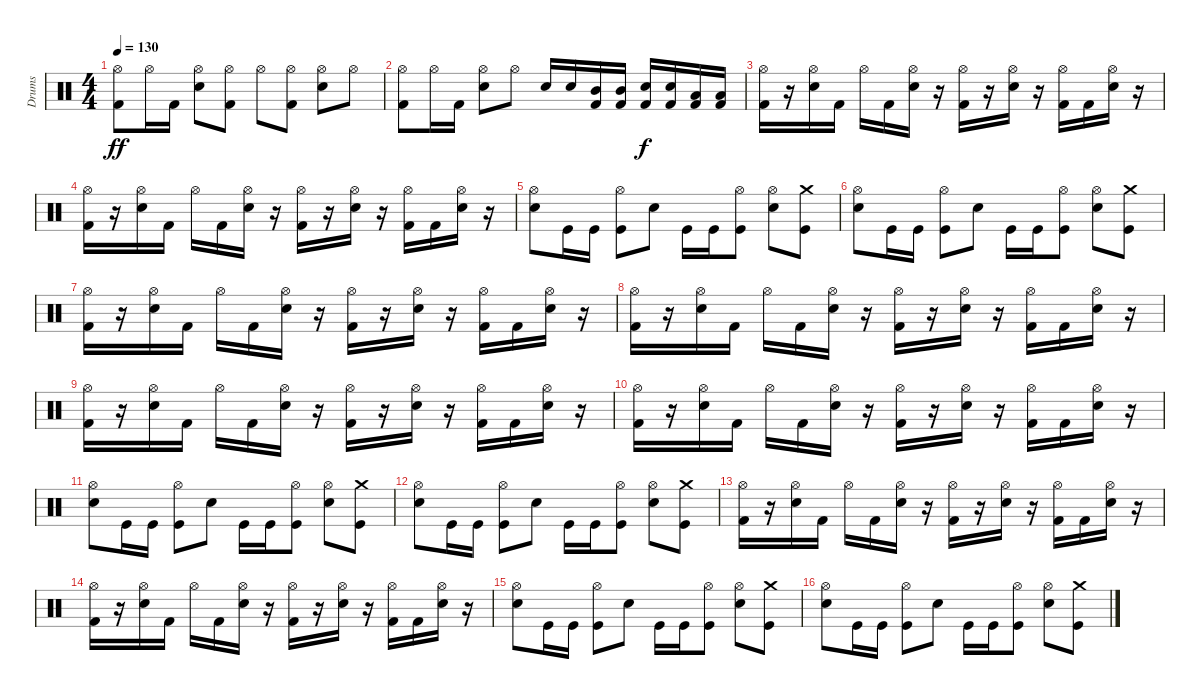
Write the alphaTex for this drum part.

\track ("Drums" "Drums") {instrument percussion}
\staff {score}
\articulation defaults
\ts (4 4)
\tempo 130
\clef neutral
\ks c
("Kick (hit) 2" "Hi-Hat (open)").8{dy ff} "Hi-Hat (open)".16 "Kick (hit) 2".16 ("Hi-Hat (open)" "Electric Snare (hit)").8 ("Kick (hit) 2" "Hi-Hat (open)").8 "Hi-Hat (open)".8 ("Kick (hit) 2" "Hi-Hat (open)").8 ("Hi-Hat (open)" "Electric Snare (hit)").8 "Hi-Hat (open)".8 |
("Kick (hit) 2" "Hi-Hat (open)").8 "Hi-Hat (open)".16 "Kick (hit) 2".16 ("Hi-Hat (open)" "Electric Snare (hit)").8 "Hi-Hat (open)".8 "Electric Snare (hit)".16 "Electric Snare (hit)".16 ("Kick (hit) 2" "Mid Tom (hit)").16 ("Kick (hit) 2" "Mid Tom (hit)").16 ("Kick (hit) 2" "Electric Snare (hit)").16{dy f} ("Kick (hit) 2" "Electric Snare (hit)").16 ("Kick (hit) 2" "Low Tom (hit)").16 ("Kick (hit) 2" "Low Tom (hit)").16 |
("Kick (hit) 2" "Hi-Hat (open)").16 r.16 ("Electric Snare (hit)" "Hi-Hat (open)").16 "Kick (hit) 2".16 "Hi-Hat (open)".16 "Kick (hit) 2".16 ("Electric Snare (hit)" "Hi-Hat (open)").16 r.16 ("Kick (hit) 2" "Hi-Hat (open)").16 r.16 ("Electric Snare (hit)" "Hi-Hat (open)").16 r.16 ("Kick (hit) 2" "Hi-Hat (open)").16 "Kick (hit) 2".16 ("Electric Snare (hit)" "Hi-Hat (open)").16 r.16 |
("Kick (hit) 2" "Hi-Hat (open)").16 r.16 ("Electric Snare (hit)" "Hi-Hat (open)").16 "Kick (hit) 2".16 "Hi-Hat (open)".16 "Kick (hit) 2".16 ("Electric Snare (hit)" "Hi-Hat (open)").16 r.16 ("Kick (hit) 2" "Hi-Hat (open)").16 r.16 ("Electric Snare (hit)" "Hi-Hat (open)").16 r.16 ("Hi-Hat (open)" "Kick (hit) 2").16 "Kick (hit) 2".16 ("Electric Snare (hit)" "Hi-Hat (open)").16 r.16 |
("Hi-Hat (open)" "Electric Snare (hit)").8 "Kick (hit)".16 "Kick (hit)".16 ("Hi-Hat (open)" "Kick (hit)").8 "Electric Snare (hit)".8 "Kick (hit)".16 "Kick (hit)".16 ("Hi-Hat (open)" "Kick (hit)").8 ("Hi-Hat (open)" "Electric Snare (hit)").8 ("Crash medium (hit)" "Kick (hit)").8 |
("Hi-Hat (open)" "Electric Snare (hit)").8 "Kick (hit)".16 "Kick (hit)".16 ("Hi-Hat (open)" "Kick (hit)").8 "Electric Snare (hit)".8 "Kick (hit)".16 "Kick (hit)".16 ("Hi-Hat (open)" "Kick (hit)").8 ("Hi-Hat (open)" "Electric Snare (hit)").8 ("Crash medium (hit)" "Kick (hit)").8 |
("Kick (hit) 2" "Hi-Hat (open)").16 r.16 ("Electric Snare (hit)" "Hi-Hat (open)").16 "Kick (hit) 2".16 "Hi-Hat (open)".16 "Kick (hit) 2".16 ("Electric Snare (hit)" "Hi-Hat (open)").16 r.16 ("Kick (hit) 2" "Hi-Hat (open)").16 r.16 ("Electric Snare (hit)" "Hi-Hat (open)").16 r.16 ("Kick (hit) 2" "Hi-Hat (open)").16 "Kick (hit) 2".16 ("Electric Snare (hit)" "Hi-Hat (open)").16 r.16 |
("Kick (hit) 2" "Hi-Hat (open)").16 r.16 ("Electric Snare (hit)" "Hi-Hat (open)").16 "Kick (hit) 2".16 "Hi-Hat (open)".16 "Kick (hit) 2".16 ("Electric Snare (hit)" "Hi-Hat (open)").16 r.16 ("Kick (hit) 2" "Hi-Hat (open)").16 r.16 ("Electric Snare (hit)" "Hi-Hat (open)").16 r.16 ("Kick (hit) 2" "Hi-Hat (open)").16 "Kick (hit) 2".16 ("Electric Snare (hit)" "Hi-Hat (open)").16 r.16 |
("Kick (hit) 2" "Hi-Hat (open)").16 r.16 ("Electric Snare (hit)" "Hi-Hat (open)").16 "Kick (hit) 2".16 "Hi-Hat (open)".16 "Kick (hit) 2".16 ("Electric Snare (hit)" "Hi-Hat (open)").16 r.16 ("Kick (hit) 2" "Hi-Hat (open)").16 r.16 ("Electric Snare (hit)" "Hi-Hat (open)").16 r.16 ("Kick (hit) 2" "Hi-Hat (open)").16 "Kick (hit) 2".16 ("Electric Snare (hit)" "Hi-Hat (open)").16 r.16 |
("Kick (hit) 2" "Hi-Hat (open)").16 r.16 ("Electric Snare (hit)" "Hi-Hat (open)").16 "Kick (hit) 2".16 "Hi-Hat (open)".16 "Kick (hit) 2".16 ("Electric Snare (hit)" "Hi-Hat (open)").16 r.16 ("Kick (hit) 2" "Hi-Hat (open)").16 r.16 ("Electric Snare (hit)" "Hi-Hat (open)").16 r.16 ("Kick (hit) 2" "Hi-Hat (open)").16 "Kick (hit) 2".16 ("Electric Snare (hit)" "Hi-Hat (open)").16 r.16 |
("Hi-Hat (open)" "Electric Snare (hit)").8 "Kick (hit)".16 "Kick (hit)".16 ("Hi-Hat (open)" "Kick (hit)").8 "Electric Snare (hit)".8 "Kick (hit)".16 "Kick (hit)".16 ("Hi-Hat (open)" "Kick (hit)").8 ("Hi-Hat (open)" "Electric Snare (hit)").8 ("Crash medium (hit)" "Kick (hit)").8 |
("Hi-Hat (open)" "Electric Snare (hit)").8 "Kick (hit)".16 "Kick (hit)".16 ("Hi-Hat (open)" "Kick (hit)").8 "Electric Snare (hit)".8 "Kick (hit)".16 "Kick (hit)".16 ("Hi-Hat (open)" "Kick (hit)").8 ("Hi-Hat (open)" "Electric Snare (hit)").8 ("Crash medium (hit)" "Kick (hit)").8 |
("Kick (hit) 2" "Hi-Hat (open)").16 r.16 ("Electric Snare (hit)" "Hi-Hat (open)").16 "Kick (hit) 2".16 "Hi-Hat (open)".16 "Kick (hit) 2".16 ("Electric Snare (hit)" "Hi-Hat (open)").16 r.16 ("Kick (hit) 2" "Hi-Hat (open)").16 r.16 ("Electric Snare (hit)" "Hi-Hat (open)").16 r.16 ("Kick (hit) 2" "Hi-Hat (open)").16 "Kick (hit) 2".16 ("Electric Snare (hit)" "Hi-Hat (open)").16 r.16 |
("Kick (hit) 2" "Hi-Hat (open)").16 r.16 ("Electric Snare (hit)" "Hi-Hat (open)").16 "Kick (hit) 2".16 "Hi-Hat (open)".16 "Kick (hit) 2".16 ("Electric Snare (hit)" "Hi-Hat (open)").16 r.16 ("Kick (hit) 2" "Hi-Hat (open)").16 r.16 ("Electric Snare (hit)" "Hi-Hat (open)").16 r.16 ("Kick (hit) 2" "Hi-Hat (open)").16 "Kick (hit) 2".16 ("Electric Snare (hit)" "Hi-Hat (open)").16 r.16 |
("Hi-Hat (open)" "Electric Snare (hit)").8 "Kick (hit)".16 "Kick (hit)".16 ("Hi-Hat (open)" "Kick (hit)").8 "Electric Snare (hit)".8 "Kick (hit)".16 "Kick (hit)".16 ("Hi-Hat (open)" "Kick (hit)").8 ("Hi-Hat (open)" "Electric Snare (hit)").8 ("Crash medium (hit)" "Kick (hit)").8 |
("Hi-Hat (open)" "Electric Snare (hit)").8 "Kick (hit)".16 "Kick (hit)".16 ("Hi-Hat (open)" "Kick (hit)").8 "Electric Snare (hit)".8 "Kick (hit)".16 "Kick (hit)".16 ("Hi-Hat (open)" "Kick (hit)").8 ("Hi-Hat (open)" "Electric Snare (hit)").8 ("Crash medium (hit)" "Kick (hit)").8
